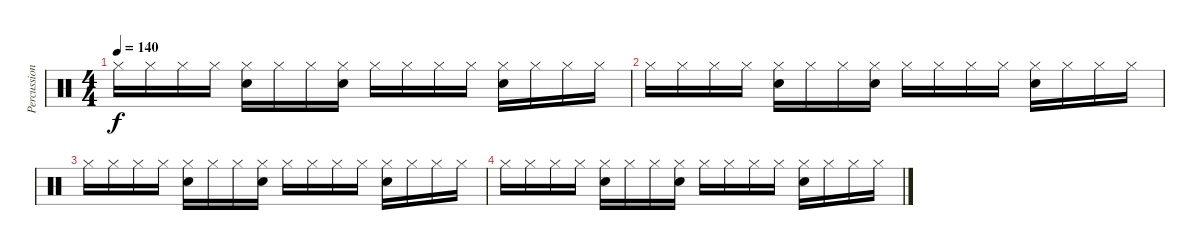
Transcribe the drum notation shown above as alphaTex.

\track ("Percussion" "Percussion") {instrument percussion}
\staff {score}
\articulation defaults
\ts (4 4)
\tempo 140
\clef neutral
\ks c "Hi-Hat (closed)".16{dy f} "Hi-Hat (closed)".16 "Hi-Hat (closed)".16 "Hi-Hat (closed)".16
("Hi-Hat (closed)" "Electric Snare (hit)").16 "Hi-Hat (closed)".16 "Hi-Hat (closed)".16 ("Hi-Hat (closed)" "Electric Snare (hit)").16 "Hi-Hat (closed)".16 "Hi-Hat (closed)".16 "Hi-Hat (closed)".16 "Hi-Hat (closed)".16 ("Hi-Hat (closed)" "Electric Snare (hit)").16 "Hi-Hat (closed)".16 "Hi-Hat (closed)".16 "Hi-Hat (closed)".16 |
"Hi-Hat (closed)".16 "Hi-Hat (closed)".16 "Hi-Hat (closed)".16 "Hi-Hat (closed)".16 ("Hi-Hat (closed)" "Electric Snare (hit)").16 "Hi-Hat (closed)".16 "Hi-Hat (closed)".16 ("Hi-Hat (closed)" "Electric Snare (hit)").16 "Hi-Hat (closed)".16 "Hi-Hat (closed)".16 "Hi-Hat (closed)".16 "Hi-Hat (closed)".16 ("Hi-Hat (closed)" "Electric Snare (hit)").16 "Hi-Hat (closed)".16 "Hi-Hat (closed)".16 "Hi-Hat (closed)".16 |
"Hi-Hat (closed)".16 "Hi-Hat (closed)".16 "Hi-Hat (closed)".16 "Hi-Hat (closed)".16 ("Hi-Hat (closed)" "Electric Snare (hit)").16 "Hi-Hat (closed)".16 "Hi-Hat (closed)".16 ("Hi-Hat (closed)" "Electric Snare (hit)").16 "Hi-Hat (closed)".16 "Hi-Hat (closed)".16 "Hi-Hat (closed)".16 "Hi-Hat (closed)".16 ("Hi-Hat (closed)" "Electric Snare (hit)").16 "Hi-Hat (closed)".16 "Hi-Hat (closed)".16 "Hi-Hat (closed)".16 |
"Hi-Hat (closed)".16 "Hi-Hat (closed)".16 "Hi-Hat (closed)".16 "Hi-Hat (closed)".16 ("Hi-Hat (closed)" "Electric Snare (hit)").16 "Hi-Hat (closed)".16 "Hi-Hat (closed)".16 ("Hi-Hat (closed)" "Electric Snare (hit)").16 "Hi-Hat (closed)".16 "Hi-Hat (closed)".16 "Hi-Hat (closed)".16 "Hi-Hat (closed)".16 ("Hi-Hat (closed)" "Electric Snare (hit)").16 "Hi-Hat (closed)".16 "Hi-Hat (closed)".16 "Hi-Hat (closed)".16
